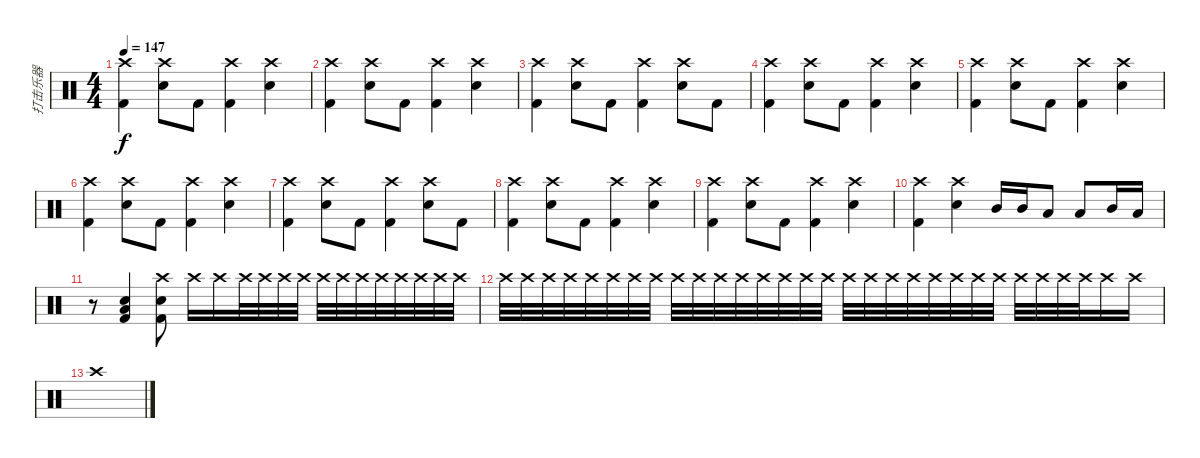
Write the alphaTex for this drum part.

\track ("打击乐器" "打击乐器") {instrument percussion}
\staff {score}
\articulation defaults
\ts (4 4)
\tempo 147
\clef neutral
\ks c
("Crash high (hit)" "Kick (hit) 2").4{dy f} ("Crash high (hit)" "Snare (hit) 2").8 "Kick (hit) 2".8 ("Crash high (hit)" "Kick (hit) 2").4 ("Crash high (hit)" "Snare (hit) 2").4 |
("Crash high (hit)" "Kick (hit) 2").4 ("Crash high (hit)" "Snare (hit) 2").8 "Kick (hit) 2".8 ("Crash high (hit)" "Kick (hit) 2").4 ("Crash high (hit)" "Snare (hit) 2").4 |
("Crash high (hit)" "Kick (hit) 2").4 ("Crash high (hit)" "Snare (hit) 2").8 "Kick (hit) 2".8 ("Crash high (hit)" "Kick (hit) 2").4 ("Crash high (hit)" "Snare (hit) 2").8 "Kick (hit) 2".8 |
("Crash high (hit)" "Kick (hit) 2").4 ("Crash high (hit)" "Snare (hit) 2").8 "Kick (hit) 2".8 ("Crash high (hit)" "Kick (hit) 2").4 ("Crash high (hit)" "Snare (hit) 2").4 |
("Crash high (hit)" "Kick (hit) 2").4 ("Crash high (hit)" "Snare (hit) 2").8 "Kick (hit) 2".8 ("Crash high (hit)" "Kick (hit) 2").4 ("Crash high (hit)" "Snare (hit) 2").4 |
("Crash high (hit)" "Kick (hit) 2").4 ("Crash high (hit)" "Snare (hit) 2").8 "Kick (hit) 2".8 ("Crash high (hit)" "Kick (hit) 2").4 ("Crash high (hit)" "Snare (hit) 2").4 |
("Crash high (hit)" "Kick (hit) 2").4 ("Crash high (hit)" "Snare (hit) 2").8 "Kick (hit) 2".8 ("Crash high (hit)" "Kick (hit) 2").4 ("Crash high (hit)" "Snare (hit) 2").8 "Kick (hit) 2".8 |
("Crash high (hit)" "Kick (hit) 2").4 ("Crash high (hit)" "Snare (hit) 2").8 "Kick (hit) 2".8 ("Crash high (hit)" "Kick (hit) 2").4 ("Crash high (hit)" "Snare (hit) 2").4 |
("Crash high (hit)" "Kick (hit) 2").4 ("Crash high (hit)" "Snare (hit) 2").8 "Kick (hit) 2".8 ("Crash high (hit)" "Kick (hit) 2").4 ("Crash high (hit)" "Snare (hit) 2").4 |
("Crash high (hit)" "Kick (hit) 2").4 ("Crash high (hit)" "Snare (hit) 2").4 "Mid Tom (hit)".16 "Mid Tom (hit)".16 "Low Tom (hit)".8 "Low Floor Tom (hit)".8 "Mid Tom (hit)".16 "Low Tom (hit)".16 |
r.8 ("Low Floor Tom (hit)" "Snare (hit) 2" "Kick (hit) 2").4 ("Crash high (hit)" "Snare (hit) 2" "Kick (hit) 2").8 "Crash high (hit)".16 "Crash high (hit)".16 "Crash high (hit)".32 "Crash high (hit)".32 "Crash high (hit)".32 "Crash high (hit)".32 "Crash high (hit)".32 "Crash high (hit)".32 "Crash high (hit)".32 "Crash high (hit)".32 "Crash high (hit)".32 "Crash high (hit)".32 "Crash high (hit)".32 "Crash high (hit)".32 |
"Crash high (hit)".32 "Crash high (hit)".32 "Crash high (hit)".32 "Crash high (hit)".32 "Crash high (hit)".32 "Crash high (hit)".32 "Crash high (hit)".32 "Crash high (hit)".32 "Crash high (hit)".32 "Crash high (hit)".32 "Crash high (hit)".32 "Crash high (hit)".32 "Crash high (hit)".32 "Crash high (hit)".32 "Crash high (hit)".32 "Crash high (hit)".32 "Crash high (hit)".32 "Crash high (hit)".32 "Crash high (hit)".32 "Crash high (hit)".32 "Crash high (hit)".32 "Crash high (hit)".32 "Crash high (hit)".32 "Crash high (hit)".32 "Crash high (hit)".32 "Crash high (hit)".32 "Crash high (hit)".32 "Crash high (hit)".32 "Crash high (hit)".16 "Crash high (hit)".16 |
"Crash high (hit)".1
